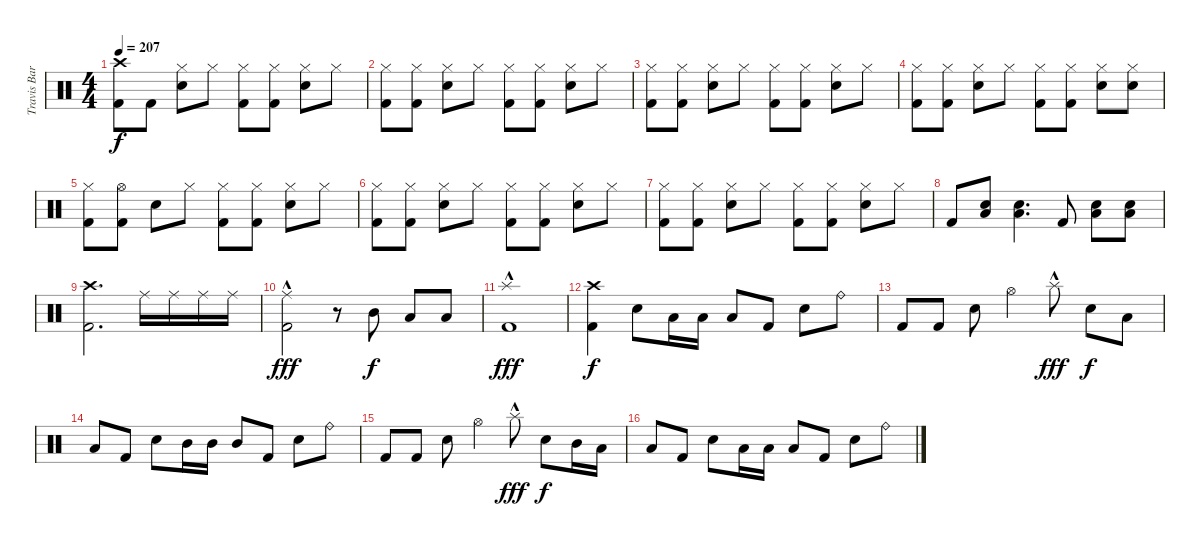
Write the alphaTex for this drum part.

\track ("Travis Barker" "Travis Bar") {instrument percussion}
\staff {score}
\articulation defaults
\ts (4 4)
\tempo 207
\clef neutral
\ks c
("Crash high (hit)" "Kick (hit) 2").8{dy f} "Kick (hit) 2".8 ("Hi-Hat (closed)" "Electric Snare (hit)").8 "Hi-Hat (closed)".8 ("Hi-Hat (closed)" "Kick (hit) 2").8 ("Hi-Hat (closed)" "Kick (hit) 2").8 ("Hi-Hat (closed)" "Electric Snare (hit)").8 "Hi-Hat (closed)".8 |
("Hi-Hat (closed)" "Kick (hit) 2").8 ("Hi-Hat (closed)" "Kick (hit) 2").8 ("Hi-Hat (closed)" "Electric Snare (hit)").8 "Hi-Hat (closed)".8 ("Hi-Hat (closed)" "Kick (hit) 2").8 ("Hi-Hat (closed)" "Kick (hit) 2").8 ("Hi-Hat (closed)" "Electric Snare (hit)").8 "Hi-Hat (closed)".8 |
("Hi-Hat (closed)" "Kick (hit) 2").8 ("Hi-Hat (closed)" "Kick (hit) 2").8 ("Hi-Hat (closed)" "Electric Snare (hit)").8 "Hi-Hat (closed)".8 ("Hi-Hat (closed)" "Kick (hit) 2").8 ("Hi-Hat (closed)" "Kick (hit) 2").8 ("Hi-Hat (closed)" "Electric Snare (hit)").8 "Hi-Hat (closed)".8 |
("Hi-Hat (closed)" "Kick (hit) 2").8 ("Hi-Hat (closed)" "Kick (hit) 2").8 ("Hi-Hat (closed)" "Electric Snare (hit)").8 "Hi-Hat (closed)".8 ("Hi-Hat (closed)" "Kick (hit) 2").8 ("Hi-Hat (closed)" "Kick (hit) 2").8 ("Hi-Hat (closed)" "Electric Snare (hit)").8 ("Hi-Hat (closed)" "Electric Snare (hit)").8 |
("Hi-Hat (closed)" "Kick (hit) 2").8 ("Hi-Hat (open)" "Kick (hit) 2").8 "Electric Snare (hit)".8 "Hi-Hat (closed)".8 ("Hi-Hat (closed)" "Kick (hit) 2").8 ("Hi-Hat (closed)" "Kick (hit) 2").8 ("Hi-Hat (closed)" "Electric Snare (hit)").8 "Hi-Hat (closed)".8 |
("Hi-Hat (closed)" "Kick (hit) 2").8 ("Hi-Hat (closed)" "Kick (hit) 2").8 ("Hi-Hat (closed)" "Electric Snare (hit)").8 "Hi-Hat (closed)".8 ("Hi-Hat (closed)" "Kick (hit) 2").8 ("Hi-Hat (closed)" "Kick (hit) 2").8 ("Hi-Hat (closed)" "Electric Snare (hit)").8 "Hi-Hat (closed)".8 |
("Hi-Hat (closed)" "Kick (hit) 2").8 ("Hi-Hat (closed)" "Kick (hit) 2").8 ("Hi-Hat (closed)" "Electric Snare (hit)").8 "Hi-Hat (closed)".8 ("Hi-Hat (closed)" "Kick (hit) 2").8 ("Hi-Hat (closed)" "Kick (hit) 2").8 ("Hi-Hat (closed)" "Electric Snare (hit)").8 "Hi-Hat (closed)".8 |
"Kick (hit) 2".8 ("Electric Snare (hit)" "Low Tom (hit)").8 ("Electric Snare (hit)" "Low Tom (hit)").4{d} "Kick (hit) 2".8 ("Electric Snare (hit)" "Low Tom (hit)").8 ("Electric Snare (hit)" "Low Tom (hit)").8 |
("Crash high (hit)" "Kick (hit) 2").2{d volume 12} "Ride (middle)".16 "Ride (middle)".16 "Ride (middle)".16 "Ride (middle)".16 |
("Ride (middle)"{hac} "Kick (hit) 2").2{dy fff} r.8 "Mid Tom (hit)".8{dy f} "Low Tom (hit)".8 "Low Tom (hit)".8 |
("Splash (hit)"{hac} "Kick (hit) 2").1{dy fff} |
("Crash high (hit)" "Kick (hit) 2").4{dy f} "Electric Snare (hit)".8 "Low Tom (hit)".16 "Low Tom (hit)".16 "Low Tom (hit)".8 "Kick (hit) 2".8 "Electric Snare (hit)".8 "Ride (bell)".8 |
"Kick (hit) 2".8 "Kick (hit) 2".8 "Electric Snare (hit)".8 "Hi-Hat (open)".4 "Splash (hit)"{hac}.8{dy fff} "Electric Snare (hit)".8{dy f} "Low Tom (hit)".8 |
"Low Tom (hit)".8 "Kick (hit) 2".8 "Electric Snare (hit)".8 "Mid Tom (hit)".16 "Mid Tom (hit)".16 "Mid Tom (hit)".8 "Kick (hit) 2".8 "Electric Snare (hit)".8 "Ride (bell)".8 |
"Kick (hit) 2".8 "Kick (hit) 2".8 "Electric Snare (hit)".8 "Hi-Hat (open)".4 "Splash (hit)"{hac}.8{dy fff} "Electric Snare (hit)".8{dy f} "Mid Tom (hit)".16 "Low Tom (hit)".16 |
"Low Tom (hit)".8 "Kick (hit) 2".8 "Electric Snare (hit)".8 "Low Tom (hit)".16 "Low Tom (hit)".16 "Low Tom (hit)".8 "Kick (hit) 2".8 "Electric Snare (hit)".8 "Ride (bell)".8
